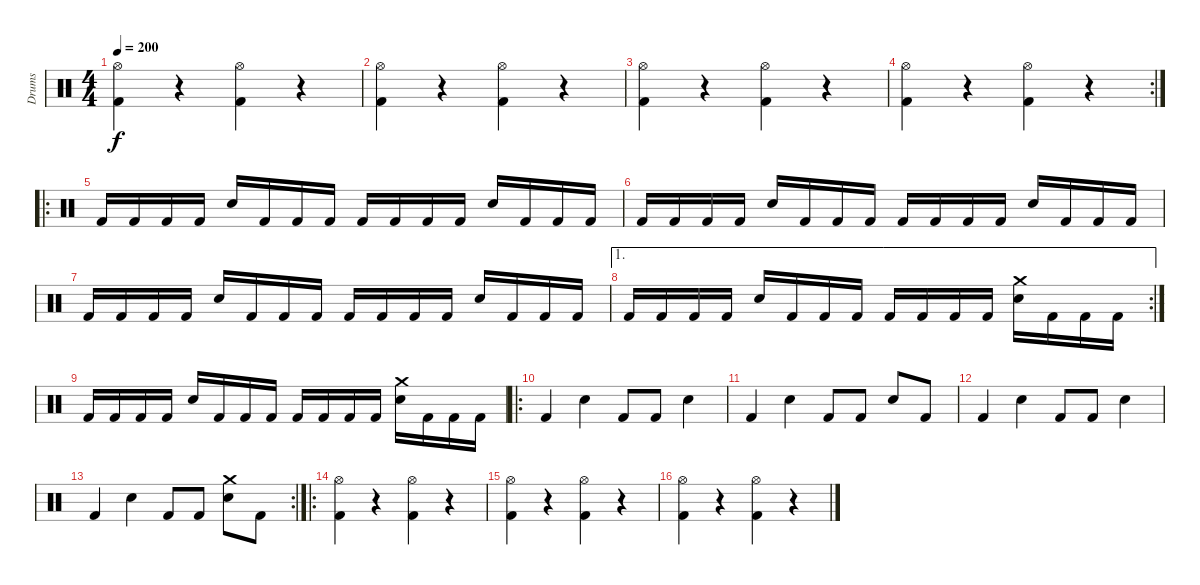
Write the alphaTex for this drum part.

\track ("Drums" "Drums") {instrument percussion}
\staff {score}
\articulation defaults
\ts (4 4)
\tempo 200
\clef neutral
\ks c
("Hi-Hat (open)" "Kick (hit) 2").4{dy f} r.4 ("Hi-Hat (open)" "Kick (hit) 2").4 r.4 |
("Hi-Hat (open)" "Kick (hit) 2").4 r.4 ("Hi-Hat (open)" "Kick (hit) 2").4 r.4 |
("Hi-Hat (open)" "Kick (hit) 2").4 r.4 ("Hi-Hat (open)" "Kick (hit) 2").4 r.4 |
\rc 2
("Hi-Hat (open)" "Kick (hit) 2").4 r.4 ("Hi-Hat (open)" "Kick (hit) 2").4 r.4 |
\ro "Kick (hit) 2".16 "Kick (hit) 2".16 "Kick (hit) 2".16 "Kick (hit) 2".16 "Electric Snare (hit)".16 "Kick (hit) 2".16 "Kick (hit) 2".16 "Kick (hit) 2".16 "Kick (hit) 2".16 "Kick (hit) 2".16 "Kick (hit) 2".16 "Kick (hit) 2".16 "Electric Snare (hit)".16 "Kick (hit) 2".16 "Kick (hit) 2".16 "Kick (hit) 2".16
|
"Kick (hit) 2".16 "Kick (hit) 2".16 "Kick (hit) 2".16 "Kick (hit) 2".16 "Electric Snare (hit)".16 "Kick (hit) 2".16 "Kick (hit) 2".16 "Kick (hit) 2".16 "Kick (hit) 2".16 "Kick (hit) 2".16 "Kick (hit) 2".16 "Kick (hit) 2".16 "Electric Snare (hit)".16 "Kick (hit) 2".16 "Kick (hit) 2".16 "Kick (hit) 2".16 |
"Kick (hit) 2".16 "Kick (hit) 2".16 "Kick (hit) 2".16 "Kick (hit) 2".16 "Electric Snare (hit)".16 "Kick (hit) 2".16 "Kick (hit) 2".16 "Kick (hit) 2".16 "Kick (hit) 2".16 "Kick (hit) 2".16 "Kick (hit) 2".16 "Kick (hit) 2".16 "Electric Snare (hit)".16 "Kick (hit) 2".16 "Kick (hit) 2".16 "Kick (hit) 2".16 |
\ae 1
\rc 2 "Kick (hit) 2".16 "Kick (hit) 2".16 "Kick (hit) 2".16 "Kick (hit) 2".16 "Electric Snare (hit)".16 "Kick (hit) 2".16 "Kick (hit) 2".16 "Kick (hit) 2".16 "Kick (hit) 2".16 "Kick (hit) 2".16 "Kick (hit) 2".16 "Kick (hit) 2".16
("Crash medium (hit)" "Electric Snare (hit)").16 "Kick (hit) 2".16 "Kick (hit) 2".16 "Kick (hit) 2".16 |
"Kick (hit) 2".16 "Kick (hit) 2".16 "Kick (hit) 2".16 "Kick (hit) 2".16 "Electric Snare (hit)".16 "Kick (hit) 2".16 "Kick (hit) 2".16 "Kick (hit) 2".16 "Kick (hit) 2".16 "Kick (hit) 2".16 "Kick (hit) 2".16 "Kick (hit) 2".16 ("Crash medium (hit)" "Electric Snare (hit)").16 "Kick (hit) 2".16 "Kick (hit) 2".16 "Kick (hit) 2".16 |
\ro "Kick (hit) 2".4 "Electric Snare (hit)".4 "Kick (hit) 2".8 "Kick (hit) 2".8 "Electric Snare (hit)".4
|
"Kick (hit) 2".4 "Electric Snare (hit)".4 "Kick (hit) 2".8 "Kick (hit) 2".8 "Electric Snare (hit)".8 "Kick (hit) 2".8 |
"Kick (hit) 2".4 "Electric Snare (hit)".4 "Kick (hit) 2".8 "Kick (hit) 2".8 "Electric Snare (hit)".4 |
\rc 2 "Kick (hit) 2".4 "Electric Snare (hit)".4 "Kick (hit) 2".8 "Kick (hit) 2".8
("Crash medium (hit)" "Electric Snare (hit)").8 "Kick (hit) 2".8 |
\ro
("Hi-Hat (open)" "Kick (hit) 2").4 r.4 ("Hi-Hat (open)" "Kick (hit) 2").4 r.4 |
("Hi-Hat (open)" "Kick (hit) 2").4 r.4 ("Hi-Hat (open)" "Kick (hit) 2").4 r.4 |
("Hi-Hat (open)" "Kick (hit) 2").4 r.4 ("Hi-Hat (open)" "Kick (hit) 2").4 r.4
